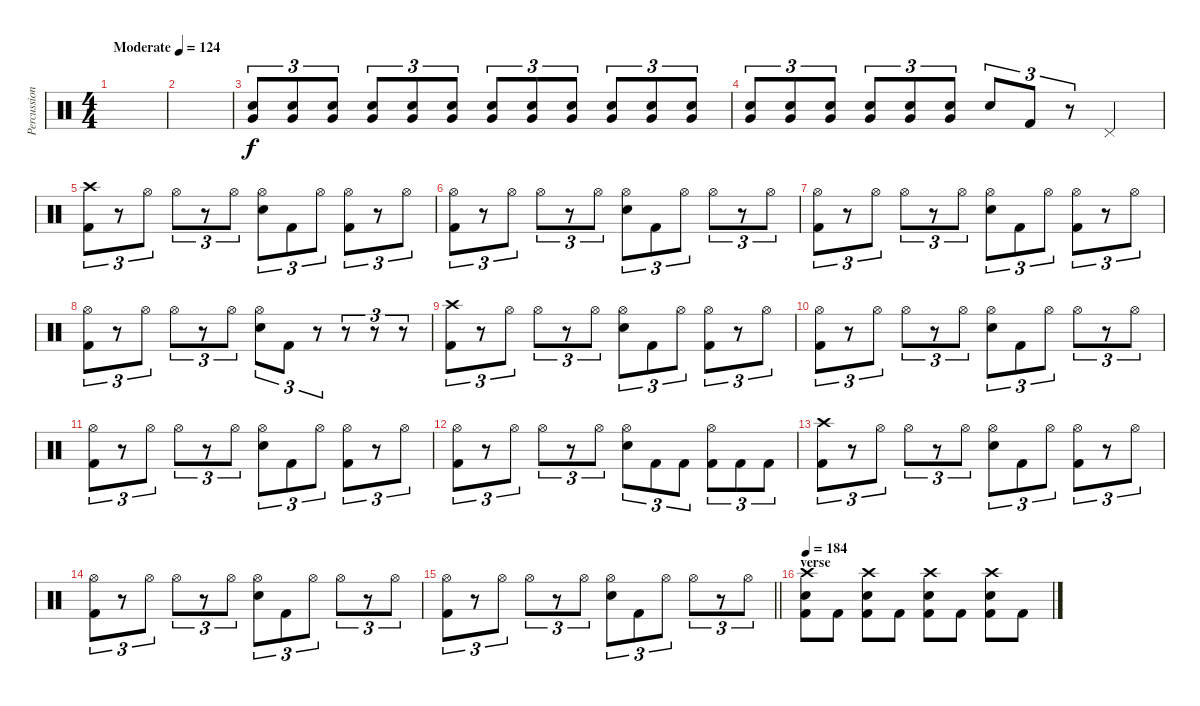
\track ("Percussion" "Percussion") {instrument percussion}
\staff {score}
\articulation defaults
\ts (4 4)
\tempo (124 "Moderate")
\clef neutral
\ks c
|
|
("Electric Snare (hit)" "Very Low Tom (hit)").8{tu (3 2) volume 13} ("Electric Snare (hit)" "Very Low Tom (hit)").8{tu (3 2)} ("Electric Snare (hit)" "Very Low Tom (hit)").8{tu (3 2)} ("Electric Snare (hit)" "Very Low Tom (hit)").8{tu (3 2)} ("Electric Snare (hit)" "Very Low Tom (hit)").8{tu (3 2)} ("Electric Snare (hit)" "Very Low Tom (hit)").8{tu (3 2)} ("Electric Snare (hit)" "Very Low Tom (hit)").8{tu (3 2)} ("Electric Snare (hit)" "Very Low Tom (hit)").8{tu (3 2)} ("Electric Snare (hit)" "Very Low Tom (hit)").8{tu (3 2)} ("Electric Snare (hit)" "Very Low Tom (hit)").8{tu (3 2)} ("Electric Snare (hit)" "Very Low Tom (hit)").8{tu (3 2)} ("Electric Snare (hit)" "Very Low Tom (hit)").8{tu (3 2)} |
("Electric Snare (hit)" "Very Low Tom (hit)").8{tu (3 2)} ("Electric Snare (hit)" "Very Low Tom (hit)").8{tu (3 2)} ("Electric Snare (hit)" "Very Low Tom (hit)").8{tu (3 2)} ("Electric Snare (hit)" "Very Low Tom (hit)").8{tu (3 2)} ("Electric Snare (hit)" "Very Low Tom (hit)").8{tu (3 2)} ("Electric Snare (hit)" "Very Low Tom (hit)").8{tu (3 2)} "Electric Snare (hit)".8{tu (3 2)} "Kick (hit) 2".8{tu (3 2)} r.8{tu (3 2)} "Pedal Hi-Hat (hit)".4 |
("Crash high (hit)" "Kick (hit) 2").8{tu (3 2) volume 13} r.8{tu (3 2)} "Hi-Hat (open)".8{tu (3 2)} "Hi-Hat (open)".8{tu (3 2)} r.8{tu (3 2)} "Hi-Hat (open)".8{tu (3 2)} ("Hi-Hat (open)" "Electric Snare (hit)").8{tu (3 2)} "Kick (hit) 2".8{tu (3 2)} "Hi-Hat (open)".8{tu (3 2)} ("Hi-Hat (open)" "Kick (hit) 2").8{tu (3 2)} r.8{tu (3 2)} "Hi-Hat (open)".8{tu (3 2)} |
("Hi-Hat (open)" "Kick (hit) 2").8{tu (3 2)} r.8{tu (3 2)} "Hi-Hat (open)".8{tu (3 2)} "Hi-Hat (open)".8{tu (3 2)} r.8{tu (3 2)} "Hi-Hat (open)".8{tu (3 2)} ("Hi-Hat (open)" "Electric Snare (hit)").8{tu (3 2)} "Kick (hit) 2".8{tu (3 2)} "Hi-Hat (open)".8{tu (3 2)} "Hi-Hat (open)".8{tu (3 2)} r.8{tu (3 2)} "Hi-Hat (open)".8{tu (3 2)} |
("Hi-Hat (open)" "Kick (hit) 2").8{tu (3 2)} r.8{tu (3 2)} "Hi-Hat (open)".8{tu (3 2)} "Hi-Hat (open)".8{tu (3 2)} r.8{tu (3 2)} "Hi-Hat (open)".8{tu (3 2)} ("Hi-Hat (open)" "Electric Snare (hit)").8{tu (3 2)} "Kick (hit) 2".8{tu (3 2)} "Hi-Hat (open)".8{tu (3 2)} ("Hi-Hat (open)" "Kick (hit) 2").8{tu (3 2)} r.8{tu (3 2)} "Hi-Hat (open)".8{tu (3 2)} |
("Hi-Hat (open)" "Kick (hit) 2").8{tu (3 2)} r.8{tu (3 2)} "Hi-Hat (open)".8{tu (3 2)} "Hi-Hat (open)".8{tu (3 2)} r.8{tu (3 2)} "Hi-Hat (open)".8{tu (3 2)} ("Hi-Hat (open)" "Electric Snare (hit)").8{tu (3 2)} "Kick (hit) 2".8{tu (3 2)} r.8{tu (3 2)} r.8{tu (3 2)} r.8{tu (3 2)} r.8{tu (3 2)} |
("Crash high (hit)" "Kick (hit) 2").8{tu (3 2)} r.8{tu (3 2)} "Hi-Hat (open)".8{tu (3 2)} "Hi-Hat (open)".8{tu (3 2)} r.8{tu (3 2)} "Hi-Hat (open)".8{tu (3 2)} ("Hi-Hat (open)" "Electric Snare (hit)").8{tu (3 2)} "Kick (hit) 2".8{tu (3 2)} "Hi-Hat (open)".8{tu (3 2)} ("Hi-Hat (open)" "Kick (hit) 2").8{tu (3 2)} r.8{tu (3 2)} "Hi-Hat (open)".8{tu (3 2)} |
("Hi-Hat (open)" "Kick (hit) 2").8{tu (3 2)} r.8{tu (3 2)} "Hi-Hat (open)".8{tu (3 2)} "Hi-Hat (open)".8{tu (3 2)} r.8{tu (3 2)} "Hi-Hat (open)".8{tu (3 2)} ("Hi-Hat (open)" "Electric Snare (hit)").8{tu (3 2)} "Kick (hit) 2".8{tu (3 2)} "Hi-Hat (open)".8{tu (3 2)} "Hi-Hat (open)".8{tu (3 2)} r.8{tu (3 2)} "Hi-Hat (open)".8{tu (3 2)} |
("Hi-Hat (open)" "Kick (hit) 2").8{tu (3 2)} r.8{tu (3 2)} "Hi-Hat (open)".8{tu (3 2)} "Hi-Hat (open)".8{tu (3 2)} r.8{tu (3 2)} "Hi-Hat (open)".8{tu (3 2)} ("Hi-Hat (open)" "Electric Snare (hit)").8{tu (3 2)} "Kick (hit) 2".8{tu (3 2)} "Hi-Hat (open)".8{tu (3 2)} ("Hi-Hat (open)" "Kick (hit) 2").8{tu (3 2)} r.8{tu (3 2)} "Hi-Hat (open)".8{tu (3 2)} |
("Hi-Hat (open)" "Kick (hit) 2").8{tu (3 2)} r.8{tu (3 2)} "Hi-Hat (open)".8{tu (3 2)} "Hi-Hat (open)".8{tu (3 2)} r.8{tu (3 2)} "Hi-Hat (open)".8{tu (3 2)} ("Hi-Hat (open)" "Electric Snare (hit)").8{tu (3 2)} "Kick (hit) 2".8{tu (3 2)} "Kick (hit) 2".8{tu (3 2)} ("Hi-Hat (open)" "Kick (hit) 2").8{tu (3 2)} "Kick (hit) 2".8{tu (3 2)} "Kick (hit) 2".8{tu (3 2)} |
("Crash high (hit)" "Kick (hit) 2").8{tu (3 2)} r.8{tu (3 2)} "Hi-Hat (open)".8{tu (3 2)} "Hi-Hat (open)".8{tu (3 2)} r.8{tu (3 2)} "Hi-Hat (open)".8{tu (3 2)} ("Hi-Hat (open)" "Electric Snare (hit)").8{tu (3 2)} "Kick (hit) 2".8{tu (3 2)} "Hi-Hat (open)".8{tu (3 2)} ("Hi-Hat (open)" "Kick (hit) 2").8{tu (3 2)} r.8{tu (3 2)} "Hi-Hat (open)".8{tu (3 2)} |
("Hi-Hat (open)" "Kick (hit) 2").8{tu (3 2)} r.8{tu (3 2)} "Hi-Hat (open)".8{tu (3 2)} "Hi-Hat (open)".8{tu (3 2)} r.8{tu (3 2)} "Hi-Hat (open)".8{tu (3 2)} ("Hi-Hat (open)" "Electric Snare (hit)").8{tu (3 2)} "Kick (hit) 2".8{tu (3 2)} "Hi-Hat (open)".8{tu (3 2)} "Hi-Hat (open)".8{tu (3 2)} r.8{tu (3 2)} "Hi-Hat (open)".8{tu (3 2)} |
\barLineRight lightlight
("Hi-Hat (open)" "Kick (hit) 2").8{tu (3 2)} r.8{tu (3 2)} "Hi-Hat (open)".8{tu (3 2)} "Hi-Hat (open)".8{tu (3 2)} r.8{tu (3 2)} "Hi-Hat (open)".8{tu (3 2)} ("Hi-Hat (open)" "Electric Snare (hit)").8{tu (3 2)} "Kick (hit) 2".8{tu (3 2)} "Hi-Hat (open)".8{tu (3 2)} "Hi-Hat (open)".8{tu (3 2)} r.8{tu (3 2)} "Hi-Hat (open)".8{tu (3 2)} |
\section ("" "verse")
\tempo 184
("Crash high (hit)" "Electric Snare (hit)" "Kick (hit) 2").8 "Kick (hit) 2".8 ("Crash high (hit)" "Electric Snare (hit)" "Kick (hit) 2").8 "Kick (hit) 2".8 ("Crash high (hit)" "Electric Snare (hit)" "Kick (hit) 2").8 "Kick (hit) 2".8 ("Crash high (hit)" "Electric Snare (hit)" "Kick (hit) 2").8 "Kick (hit) 2".8
